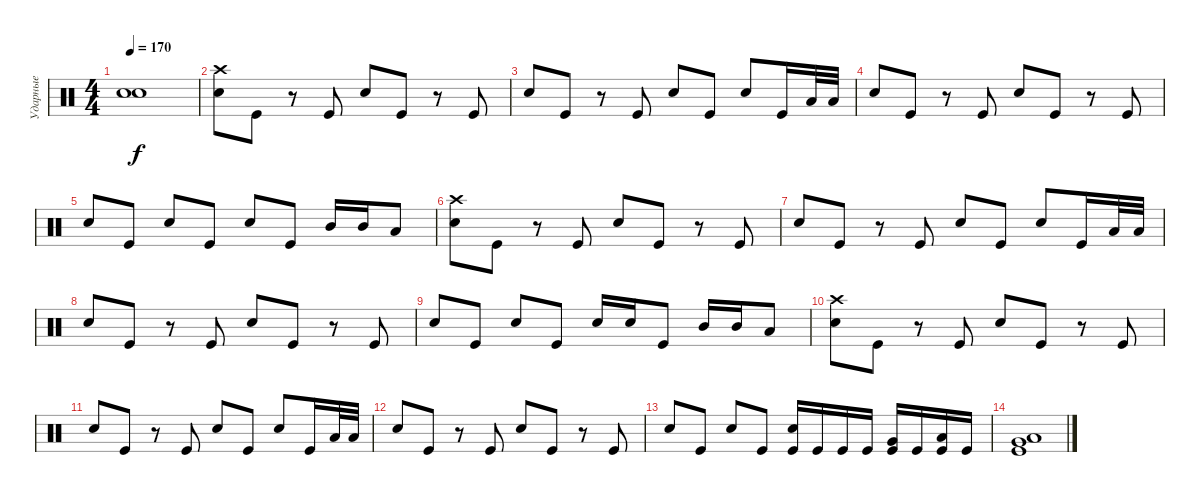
\track ("Ударные" "Ударные") {instrument percussion}
\staff {score}
\articulation defaults
\ts (4 4)
\tempo 170
\clef neutral
\ks c
("Snare (hit)"{t} "Snare (hit)"{t}).1{dy f} |
("Crash high (hit)" "Electric Snare (hit)").8 "Kick (hit)".8 r.8 "Kick (hit)".8 "Electric Snare (hit)".8 "Kick (hit)".8 r.8 "Kick (hit)".8 |
"Electric Snare (hit)".8 "Kick (hit)".8 r.8 "Kick (hit)".8 "Electric Snare (hit)".8 "Kick (hit)".8 "Electric Snare (hit)".8 "Kick (hit)".16 "Low Tom (hit)".32 "Low Tom (hit)".32 |
"Electric Snare (hit)".8 "Kick (hit)".8 r.8 "Kick (hit)".8 "Electric Snare (hit)".8 "Kick (hit)".8 r.8 "Kick (hit)".8 |
"Electric Snare (hit)".8 "Kick (hit)".8 "Electric Snare (hit)".8 "Kick (hit)".8 "Electric Snare (hit)".8 "Kick (hit)".8 "Mid Tom (hit)".16 "Mid Tom (hit)".16 "Low Tom (hit)".8 |
("Crash high (hit)" "Electric Snare (hit)").8 "Kick (hit)".8 r.8 "Kick (hit)".8 "Electric Snare (hit)".8 "Kick (hit)".8 r.8 "Kick (hit)".8 |
"Electric Snare (hit)".8 "Kick (hit)".8 r.8 "Kick (hit)".8 "Electric Snare (hit)".8 "Kick (hit)".8 "Electric Snare (hit)".8 "Kick (hit)".16 "Low Tom (hit)".32 "Low Tom (hit)".32 |
"Electric Snare (hit)".8 "Kick (hit)".8 r.8 "Kick (hit)".8 "Electric Snare (hit)".8 "Kick (hit)".8 r.8 "Kick (hit)".8 |
"Electric Snare (hit)".8 "Kick (hit)".8 "Electric Snare (hit)".8 "Kick (hit)".8 "Electric Snare (hit)".16 "Electric Snare (hit)".16 "Kick (hit)".8 "Mid Tom (hit)".16 "Mid Tom (hit)".16 "Low Tom (hit)".8 |
("Crash high (hit)" "Electric Snare (hit)").8 "Kick (hit)".8 r.8 "Kick (hit)".8 "Electric Snare (hit)".8 "Kick (hit)".8 r.8 "Kick (hit)".8 |
"Electric Snare (hit)".8 "Kick (hit)".8 r.8 "Kick (hit)".8 "Electric Snare (hit)".8 "Kick (hit)".8 "Electric Snare (hit)".8 "Kick (hit)".16 "Low Tom (hit)".32 "Low Tom (hit)".32 |
"Electric Snare (hit)".8 "Kick (hit)".8 r.8 "Kick (hit)".8 "Electric Snare (hit)".8 "Kick (hit)".8 r.8 "Kick (hit)".8 |
"Electric Snare (hit)".8 "Kick (hit)".8 "Electric Snare (hit)".8 "Kick (hit)".8 ("Electric Snare (hit)" "Kick (hit)").16 "Kick (hit)".16 "Kick (hit)".16 "Kick (hit)".16 ("Very Low Tom (hit)" "Kick (hit)").16 "Kick (hit)".16 ("Low Tom (hit)" "Kick (hit)").16 "Kick (hit)".16 |
("Low Tom (hit)" "Very Low Tom (hit)" "Kick (hit)").1
